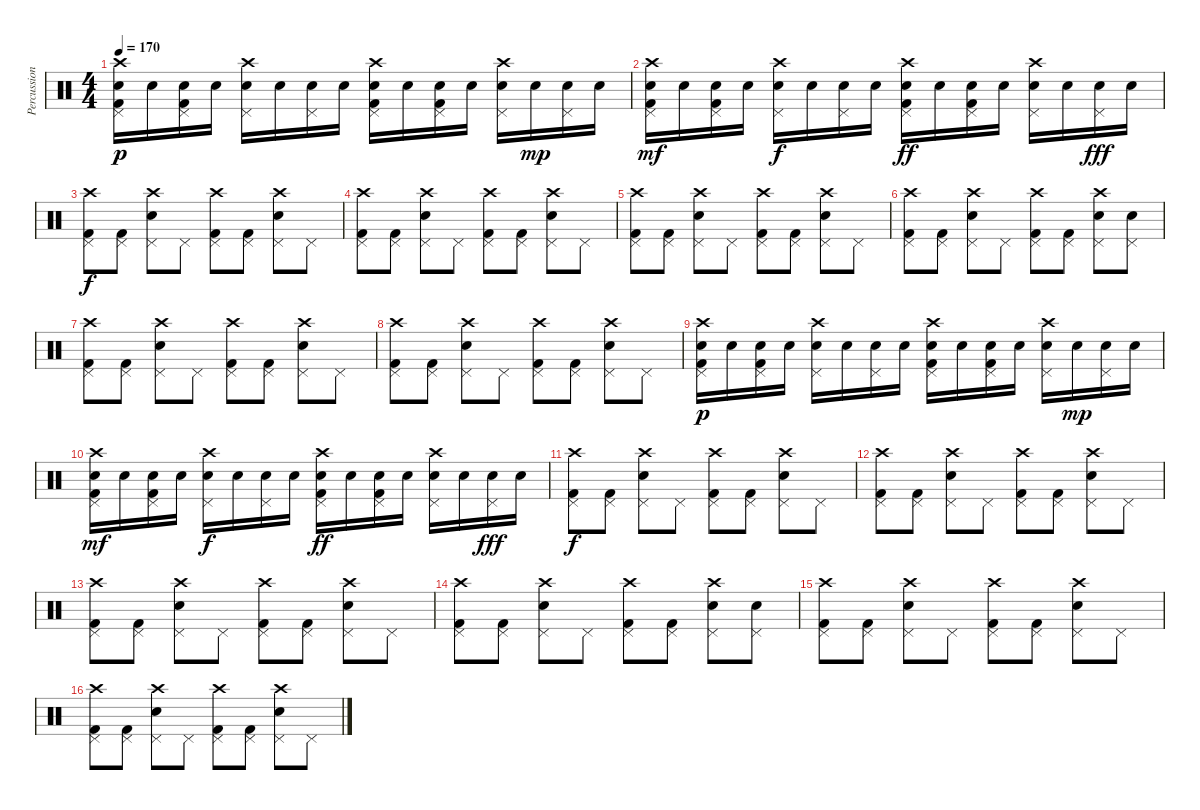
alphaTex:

\track ("Percussion" "Percussion") {instrument percussion}
\staff {score}
\articulation defaults
\ts (4 4)
\tempo 170
\clef neutral
\ks c
("Pedal Hi-Hat (hit)" "Electric Snare (hit)" "Kick (hit) 2" "Crash high (hit)").16{dy p} "Electric Snare (hit)".16 ("Pedal Hi-Hat (hit)" "Electric Snare (hit)" "Kick (hit) 2").16 "Electric Snare (hit)".16 ("Pedal Hi-Hat (hit)" "Electric Snare (hit)" "Crash high (hit)").16 "Electric Snare (hit)".16 ("Pedal Hi-Hat (hit)" "Electric Snare (hit)").16 "Electric Snare (hit)".16 ("Pedal Hi-Hat (hit)" "Electric Snare (hit)" "Kick (hit) 2" "Crash high (hit)").16 "Electric Snare (hit)".16 ("Pedal Hi-Hat (hit)" "Electric Snare (hit)" "Kick (hit) 2").16 "Electric Snare (hit)".16 ("Pedal Hi-Hat (hit)" "Electric Snare (hit)" "Crash high (hit)").16 "Electric Snare (hit)".16{dy mp} ("Pedal Hi-Hat (hit)" "Electric Snare (hit)").16 "Electric Snare (hit)".16 |
("Pedal Hi-Hat (hit)" "Electric Snare (hit)" "Kick (hit) 2" "Crash high (hit)").16{dy mf} "Electric Snare (hit)".16 ("Pedal Hi-Hat (hit)" "Electric Snare (hit)" "Kick (hit) 2").16 "Electric Snare (hit)".16 ("Pedal Hi-Hat (hit)" "Electric Snare (hit)" "Crash high (hit)").16{dy f} "Electric Snare (hit)".16 ("Pedal Hi-Hat (hit)" "Electric Snare (hit)").16 "Electric Snare (hit)".16 ("Pedal Hi-Hat (hit)" "Electric Snare (hit)" "Kick (hit) 2" "Crash high (hit)").16{dy ff} "Electric Snare (hit)".16 ("Pedal Hi-Hat (hit)" "Electric Snare (hit)" "Kick (hit) 2").16 "Electric Snare (hit)".16 ("Pedal Hi-Hat (hit)" "Electric Snare (hit)" "Crash high (hit)").16 "Electric Snare (hit)".16 ("Pedal Hi-Hat (hit)" "Electric Snare (hit)").16{dy fff} "Electric Snare (hit)".16 |
("Pedal Hi-Hat (hit)" "Kick (hit) 2" "Crash high (hit)").8{dy f} ("Pedal Hi-Hat (hit)" "Kick (hit) 2").8 ("Pedal Hi-Hat (hit)" "Electric Snare (hit)" "Crash high (hit)").8 "Pedal Hi-Hat (hit)".8 ("Pedal Hi-Hat (hit)" "Kick (hit) 2" "Crash high (hit)").8 ("Pedal Hi-Hat (hit)" "Kick (hit) 2").8 ("Pedal Hi-Hat (hit)" "Electric Snare (hit)" "Crash high (hit)").8 "Pedal Hi-Hat (hit)".8 |
("Pedal Hi-Hat (hit)" "Kick (hit) 2" "Crash high (hit)").8 ("Pedal Hi-Hat (hit)" "Kick (hit) 2").8 ("Pedal Hi-Hat (hit)" "Electric Snare (hit)" "Crash high (hit)").8 "Pedal Hi-Hat (hit)".8 ("Pedal Hi-Hat (hit)" "Kick (hit) 2" "Crash high (hit)").8 ("Pedal Hi-Hat (hit)" "Kick (hit) 2").8 ("Pedal Hi-Hat (hit)" "Electric Snare (hit)" "Crash high (hit)").8 "Pedal Hi-Hat (hit)".8 |
("Pedal Hi-Hat (hit)" "Kick (hit) 2" "Crash high (hit)").8 ("Pedal Hi-Hat (hit)" "Kick (hit) 2").8 ("Pedal Hi-Hat (hit)" "Electric Snare (hit)" "Crash high (hit)").8 "Pedal Hi-Hat (hit)".8 ("Pedal Hi-Hat (hit)" "Kick (hit) 2" "Crash high (hit)").8 ("Pedal Hi-Hat (hit)" "Kick (hit) 2").8 ("Pedal Hi-Hat (hit)" "Electric Snare (hit)" "Crash high (hit)").8 "Pedal Hi-Hat (hit)".8 |
("Pedal Hi-Hat (hit)" "Kick (hit) 2" "Crash high (hit)").8 ("Pedal Hi-Hat (hit)" "Kick (hit) 2").8 ("Pedal Hi-Hat (hit)" "Electric Snare (hit)" "Crash high (hit)").8 "Pedal Hi-Hat (hit)".8 ("Pedal Hi-Hat (hit)" "Kick (hit) 2" "Crash high (hit)").8 ("Pedal Hi-Hat (hit)" "Kick (hit) 2").8 ("Pedal Hi-Hat (hit)" "Electric Snare (hit)" "Crash high (hit)").8 ("Pedal Hi-Hat (hit)" "Electric Snare (hit)").8 |
("Pedal Hi-Hat (hit)" "Kick (hit) 2" "Crash high (hit)").8 ("Pedal Hi-Hat (hit)" "Kick (hit) 2").8 ("Pedal Hi-Hat (hit)" "Electric Snare (hit)" "Crash high (hit)").8 "Pedal Hi-Hat (hit)".8 ("Pedal Hi-Hat (hit)" "Kick (hit) 2" "Crash high (hit)").8 ("Pedal Hi-Hat (hit)" "Kick (hit) 2").8 ("Pedal Hi-Hat (hit)" "Electric Snare (hit)" "Crash high (hit)").8 "Pedal Hi-Hat (hit)".8 |
("Pedal Hi-Hat (hit)" "Kick (hit) 2" "Crash high (hit)").8 ("Pedal Hi-Hat (hit)" "Kick (hit) 2").8 ("Pedal Hi-Hat (hit)" "Electric Snare (hit)" "Crash high (hit)").8 "Pedal Hi-Hat (hit)".8 ("Pedal Hi-Hat (hit)" "Kick (hit) 2" "Crash high (hit)").8 ("Pedal Hi-Hat (hit)" "Kick (hit) 2").8 ("Pedal Hi-Hat (hit)" "Electric Snare (hit)" "Crash high (hit)").8 "Pedal Hi-Hat (hit)".8 |
("Pedal Hi-Hat (hit)" "Electric Snare (hit)" "Kick (hit) 2" "Crash high (hit)").16{dy p} "Electric Snare (hit)".16 ("Pedal Hi-Hat (hit)" "Electric Snare (hit)" "Kick (hit) 2").16 "Electric Snare (hit)".16 ("Pedal Hi-Hat (hit)" "Electric Snare (hit)" "Crash high (hit)").16 "Electric Snare (hit)".16 ("Pedal Hi-Hat (hit)" "Electric Snare (hit)").16 "Electric Snare (hit)".16 ("Pedal Hi-Hat (hit)" "Electric Snare (hit)" "Kick (hit) 2" "Crash high (hit)").16 "Electric Snare (hit)".16 ("Pedal Hi-Hat (hit)" "Electric Snare (hit)" "Kick (hit) 2").16 "Electric Snare (hit)".16 ("Pedal Hi-Hat (hit)" "Electric Snare (hit)" "Crash high (hit)").16 "Electric Snare (hit)".16{dy mp} ("Pedal Hi-Hat (hit)" "Electric Snare (hit)").16 "Electric Snare (hit)".16 |
("Pedal Hi-Hat (hit)" "Electric Snare (hit)" "Kick (hit) 2" "Crash high (hit)").16{dy mf} "Electric Snare (hit)".16 ("Pedal Hi-Hat (hit)" "Electric Snare (hit)" "Kick (hit) 2").16 "Electric Snare (hit)".16 ("Pedal Hi-Hat (hit)" "Electric Snare (hit)" "Crash high (hit)").16{dy f} "Electric Snare (hit)".16 ("Pedal Hi-Hat (hit)" "Electric Snare (hit)").16 "Electric Snare (hit)".16 ("Pedal Hi-Hat (hit)" "Electric Snare (hit)" "Kick (hit) 2" "Crash high (hit)").16{dy ff} "Electric Snare (hit)".16 ("Pedal Hi-Hat (hit)" "Electric Snare (hit)" "Kick (hit) 2").16 "Electric Snare (hit)".16 ("Pedal Hi-Hat (hit)" "Electric Snare (hit)" "Crash high (hit)").16 "Electric Snare (hit)".16 ("Pedal Hi-Hat (hit)" "Electric Snare (hit)").16{dy fff} "Electric Snare (hit)".16 |
("Pedal Hi-Hat (hit)" "Kick (hit) 2" "Crash high (hit)").8{dy f} ("Pedal Hi-Hat (hit)" "Kick (hit) 2").8 ("Pedal Hi-Hat (hit)" "Electric Snare (hit)" "Crash high (hit)").8 "Pedal Hi-Hat (hit)".8 ("Pedal Hi-Hat (hit)" "Kick (hit) 2" "Crash high (hit)").8 ("Pedal Hi-Hat (hit)" "Kick (hit) 2").8 ("Pedal Hi-Hat (hit)" "Electric Snare (hit)" "Crash high (hit)").8 "Pedal Hi-Hat (hit)".8 |
("Pedal Hi-Hat (hit)" "Kick (hit) 2" "Crash high (hit)").8 ("Pedal Hi-Hat (hit)" "Kick (hit) 2").8 ("Pedal Hi-Hat (hit)" "Electric Snare (hit)" "Crash high (hit)").8 "Pedal Hi-Hat (hit)".8 ("Pedal Hi-Hat (hit)" "Kick (hit) 2" "Crash high (hit)").8 ("Pedal Hi-Hat (hit)" "Kick (hit) 2").8 ("Pedal Hi-Hat (hit)" "Electric Snare (hit)" "Crash high (hit)").8 "Pedal Hi-Hat (hit)".8 |
("Pedal Hi-Hat (hit)" "Kick (hit) 2" "Crash high (hit)").8 ("Pedal Hi-Hat (hit)" "Kick (hit) 2").8 ("Pedal Hi-Hat (hit)" "Electric Snare (hit)" "Crash high (hit)").8 "Pedal Hi-Hat (hit)".8 ("Pedal Hi-Hat (hit)" "Kick (hit) 2" "Crash high (hit)").8 ("Pedal Hi-Hat (hit)" "Kick (hit) 2").8 ("Pedal Hi-Hat (hit)" "Electric Snare (hit)" "Crash high (hit)").8 "Pedal Hi-Hat (hit)".8 |
("Pedal Hi-Hat (hit)" "Kick (hit) 2" "Crash high (hit)").8 ("Pedal Hi-Hat (hit)" "Kick (hit) 2").8 ("Pedal Hi-Hat (hit)" "Electric Snare (hit)" "Crash high (hit)").8 "Pedal Hi-Hat (hit)".8 ("Pedal Hi-Hat (hit)" "Kick (hit) 2" "Crash high (hit)").8 ("Pedal Hi-Hat (hit)" "Kick (hit) 2").8 ("Pedal Hi-Hat (hit)" "Electric Snare (hit)" "Crash high (hit)").8 ("Pedal Hi-Hat (hit)" "Electric Snare (hit)").8 |
("Pedal Hi-Hat (hit)" "Kick (hit) 2" "Crash high (hit)").8 ("Pedal Hi-Hat (hit)" "Kick (hit) 2").8 ("Pedal Hi-Hat (hit)" "Electric Snare (hit)" "Crash high (hit)").8 "Pedal Hi-Hat (hit)".8 ("Pedal Hi-Hat (hit)" "Kick (hit) 2" "Crash high (hit)").8 ("Pedal Hi-Hat (hit)" "Kick (hit) 2").8 ("Pedal Hi-Hat (hit)" "Electric Snare (hit)" "Crash high (hit)").8 "Pedal Hi-Hat (hit)".8 |
("Pedal Hi-Hat (hit)" "Kick (hit) 2" "Crash high (hit)").8 ("Pedal Hi-Hat (hit)" "Kick (hit) 2").8 ("Pedal Hi-Hat (hit)" "Electric Snare (hit)" "Crash high (hit)").8 "Pedal Hi-Hat (hit)".8 ("Pedal Hi-Hat (hit)" "Kick (hit) 2" "Crash high (hit)").8 ("Pedal Hi-Hat (hit)" "Kick (hit) 2").8 ("Pedal Hi-Hat (hit)" "Electric Snare (hit)" "Crash high (hit)").8 "Pedal Hi-Hat (hit)".8
